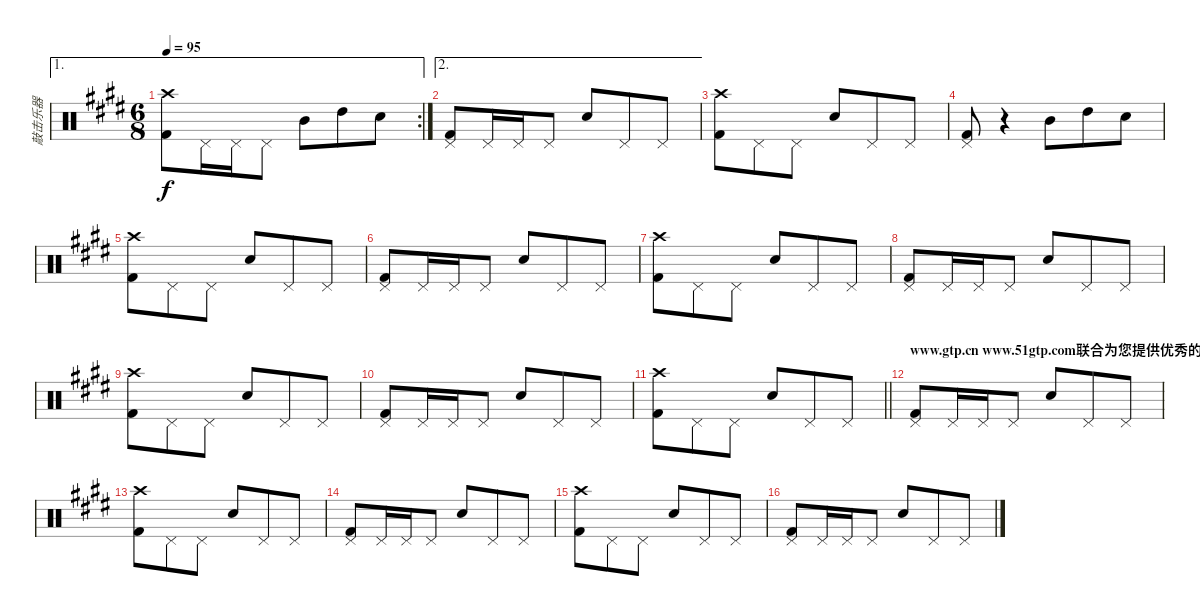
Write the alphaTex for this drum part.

\track ("敲击乐器" "敲击乐器") {instrument percussion}
\staff {score}
\articulation defaults
\ae 1
\rc 2
\ts (6 8)
\tempo 95
\clef neutral
\ks e
("Crash high (hit)" "Kick (hit) 2").8{dy f} "Pedal Hi-Hat (hit)".16 "Pedal Hi-Hat (hit)".16 "Pedal Hi-Hat (hit)".8 "Mid Tom (hit)".8 "High Tom (hit)".8 "Snare (hit) 2".8 |
\ae 2
("Pedal Hi-Hat (hit)" "Kick (hit) 2").8 "Pedal Hi-Hat (hit)".16 "Pedal Hi-Hat (hit)".16 "Pedal Hi-Hat (hit)".8 "Snare (hit) 2".8 "Pedal Hi-Hat (hit)".8 "Pedal Hi-Hat (hit)".8 |
("Crash high (hit)" "Kick (hit) 2").8 "Pedal Hi-Hat (hit)".8 "Pedal Hi-Hat (hit)".8 "Snare (hit) 2".8 "Pedal Hi-Hat (hit)".8 "Pedal Hi-Hat (hit)".8 |
("Pedal Hi-Hat (hit)" "Kick (hit) 2").8 r.4 "Mid Tom (hit)".8 "High Tom (hit)".8 "Snare (hit) 2".8 |
("Crash high (hit)" "Kick (hit) 2").8 "Pedal Hi-Hat (hit)".8 "Pedal Hi-Hat (hit)".8 "Snare (hit) 2".8 "Pedal Hi-Hat (hit)".8 "Pedal Hi-Hat (hit)".8 |
("Pedal Hi-Hat (hit)" "Kick (hit) 2").8 "Pedal Hi-Hat (hit)".16 "Pedal Hi-Hat (hit)".16 "Pedal Hi-Hat (hit)".8 "Snare (hit) 2".8 "Pedal Hi-Hat (hit)".8 "Pedal Hi-Hat (hit)".8 |
("Crash high (hit)" "Kick (hit) 2").8 "Pedal Hi-Hat (hit)".8 "Pedal Hi-Hat (hit)".8 "Snare (hit) 2".8 "Pedal Hi-Hat (hit)".8 "Pedal Hi-Hat (hit)".8 |
("Pedal Hi-Hat (hit)" "Kick (hit) 2").8 "Pedal Hi-Hat (hit)".16 "Pedal Hi-Hat (hit)".16 "Pedal Hi-Hat (hit)".8 "Snare (hit) 2".8 "Pedal Hi-Hat (hit)".8 "Pedal Hi-Hat (hit)".8 |
("Crash high (hit)" "Kick (hit) 2").8 "Pedal Hi-Hat (hit)".8 "Pedal Hi-Hat (hit)".8 "Snare (hit) 2".8 "Pedal Hi-Hat (hit)".8 "Pedal Hi-Hat (hit)".8 |
("Pedal Hi-Hat (hit)" "Kick (hit) 2").8 "Pedal Hi-Hat (hit)".16 "Pedal Hi-Hat (hit)".16 "Pedal Hi-Hat (hit)".8 "Snare (hit) 2".8 "Pedal Hi-Hat (hit)".8 "Pedal Hi-Hat (hit)".8 |
\barLineRight lightlight
("Crash high (hit)" "Kick (hit) 2").8 "Pedal Hi-Hat (hit)".8 "Pedal Hi-Hat (hit)".8 "Snare (hit) 2".8 "Pedal Hi-Hat (hit)".8 "Pedal Hi-Hat (hit)".8 |
\section ("" "www.gtp.cn www.51gtp.com联合为您提供优秀的GTP!")
("Pedal Hi-Hat (hit)" "Kick (hit) 2").8 "Pedal Hi-Hat (hit)".16 "Pedal Hi-Hat (hit)".16 "Pedal Hi-Hat (hit)".8 "Snare (hit) 2".8 "Pedal Hi-Hat (hit)".8 "Pedal Hi-Hat (hit)".8 |
("Crash high (hit)" "Kick (hit) 2").8 "Pedal Hi-Hat (hit)".8 "Pedal Hi-Hat (hit)".8 "Snare (hit) 2".8 "Pedal Hi-Hat (hit)".8 "Pedal Hi-Hat (hit)".8 |
("Pedal Hi-Hat (hit)" "Kick (hit) 2").8 "Pedal Hi-Hat (hit)".16 "Pedal Hi-Hat (hit)".16 "Pedal Hi-Hat (hit)".8 "Snare (hit) 2".8 "Pedal Hi-Hat (hit)".8 "Pedal Hi-Hat (hit)".8 |
("Crash high (hit)" "Kick (hit) 2").8 "Pedal Hi-Hat (hit)".8 "Pedal Hi-Hat (hit)".8 "Snare (hit) 2".8 "Pedal Hi-Hat (hit)".8 "Pedal Hi-Hat (hit)".8 |
("Pedal Hi-Hat (hit)" "Kick (hit) 2").8 "Pedal Hi-Hat (hit)".16 "Pedal Hi-Hat (hit)".16 "Pedal Hi-Hat (hit)".8 "Snare (hit) 2".8 "Pedal Hi-Hat (hit)".8 "Pedal Hi-Hat (hit)".8
